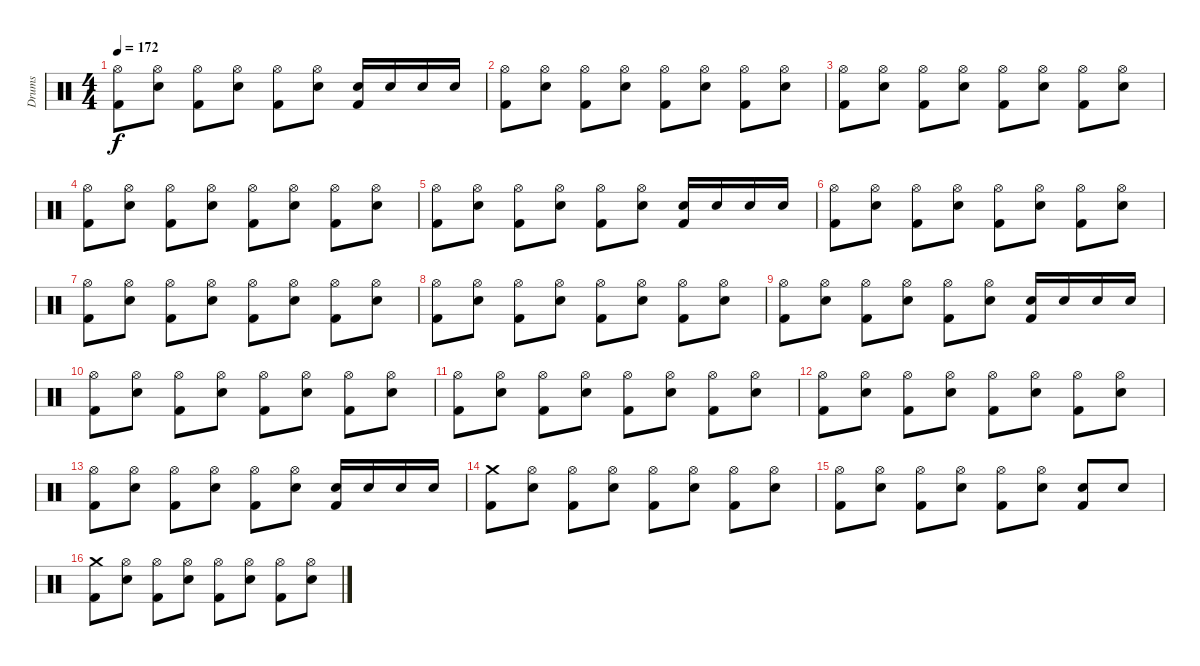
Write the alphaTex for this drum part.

\track ("Drums" "Drums") {instrument percussion}
\staff {score}
\articulation defaults
\ts (4 4)
\tempo 172
\clef neutral
\ks c
("Hi-Hat (open)" "Kick (hit) 2").8{dy f} ("Hi-Hat (open)" "Snare (hit) 2").8 ("Hi-Hat (open)" "Kick (hit) 2").8 ("Hi-Hat (open)" "Snare (hit) 2").8 ("Hi-Hat (open)" "Kick (hit) 2").8 ("Hi-Hat (open)" "Snare (hit) 2").8 ("Snare (hit) 2" "Kick (hit) 2").16 "Snare (hit) 2".16 "Snare (hit) 2".16 "Snare (hit) 2".16 |
("Hi-Hat (open)" "Kick (hit) 2").8 ("Hi-Hat (open)" "Snare (hit) 2").8 ("Hi-Hat (open)" "Kick (hit) 2").8 ("Hi-Hat (open)" "Snare (hit) 2").8 ("Hi-Hat (open)" "Kick (hit) 2").8 ("Hi-Hat (open)" "Snare (hit) 2").8 ("Hi-Hat (open)" "Kick (hit) 2").8 ("Hi-Hat (open)" "Snare (hit) 2").8 |
("Hi-Hat (open)" "Kick (hit) 2").8 ("Hi-Hat (open)" "Snare (hit) 2").8 ("Hi-Hat (open)" "Kick (hit) 2").8 ("Hi-Hat (open)" "Snare (hit) 2").8 ("Hi-Hat (open)" "Kick (hit) 2").8 ("Hi-Hat (open)" "Snare (hit) 2").8 ("Hi-Hat (open)" "Kick (hit) 2").8 ("Hi-Hat (open)" "Snare (hit) 2").8 |
("Hi-Hat (open)" "Kick (hit) 2").8 ("Hi-Hat (open)" "Snare (hit) 2").8 ("Hi-Hat (open)" "Kick (hit) 2").8 ("Hi-Hat (open)" "Snare (hit) 2").8 ("Hi-Hat (open)" "Kick (hit) 2").8 ("Hi-Hat (open)" "Snare (hit) 2").8 ("Hi-Hat (open)" "Kick (hit) 2").8 ("Hi-Hat (open)" "Snare (hit) 2").8 |
("Hi-Hat (open)" "Kick (hit) 2").8 ("Hi-Hat (open)" "Snare (hit) 2").8 ("Hi-Hat (open)" "Kick (hit) 2").8 ("Hi-Hat (open)" "Snare (hit) 2").8 ("Hi-Hat (open)" "Kick (hit) 2").8 ("Hi-Hat (open)" "Snare (hit) 2").8 ("Snare (hit) 2" "Kick (hit) 2").16 "Snare (hit) 2".16 "Snare (hit) 2".16 "Snare (hit) 2".16 |
("Hi-Hat (open)" "Kick (hit) 2").8 ("Hi-Hat (open)" "Snare (hit) 2").8 ("Hi-Hat (open)" "Kick (hit) 2").8 ("Hi-Hat (open)" "Snare (hit) 2").8 ("Hi-Hat (open)" "Kick (hit) 2").8 ("Hi-Hat (open)" "Snare (hit) 2").8 ("Hi-Hat (open)" "Kick (hit) 2").8 ("Hi-Hat (open)" "Snare (hit) 2").8 |
("Hi-Hat (open)" "Kick (hit) 2").8 ("Hi-Hat (open)" "Snare (hit) 2").8 ("Hi-Hat (open)" "Kick (hit) 2").8 ("Hi-Hat (open)" "Snare (hit) 2").8 ("Hi-Hat (open)" "Kick (hit) 2").8 ("Hi-Hat (open)" "Snare (hit) 2").8 ("Hi-Hat (open)" "Kick (hit) 2").8 ("Hi-Hat (open)" "Snare (hit) 2").8 |
("Hi-Hat (open)" "Kick (hit) 2").8 ("Hi-Hat (open)" "Snare (hit) 2").8 ("Hi-Hat (open)" "Kick (hit) 2").8 ("Hi-Hat (open)" "Snare (hit) 2").8 ("Hi-Hat (open)" "Kick (hit) 2").8 ("Hi-Hat (open)" "Snare (hit) 2").8 ("Hi-Hat (open)" "Kick (hit) 2").8 ("Hi-Hat (open)" "Snare (hit) 2").8 |
("Hi-Hat (open)" "Kick (hit) 2").8 ("Hi-Hat (open)" "Snare (hit) 2").8 ("Hi-Hat (open)" "Kick (hit) 2").8 ("Hi-Hat (open)" "Snare (hit) 2").8 ("Hi-Hat (open)" "Kick (hit) 2").8 ("Hi-Hat (open)" "Snare (hit) 2").8 ("Snare (hit) 2" "Kick (hit) 2").16 "Snare (hit) 2".16 "Snare (hit) 2".16 "Snare (hit) 2".16 |
("Hi-Hat (open)" "Kick (hit) 2").8 ("Hi-Hat (open)" "Snare (hit) 2").8 ("Hi-Hat (open)" "Kick (hit) 2").8 ("Hi-Hat (open)" "Snare (hit) 2").8 ("Hi-Hat (open)" "Kick (hit) 2").8 ("Hi-Hat (open)" "Snare (hit) 2").8 ("Hi-Hat (open)" "Kick (hit) 2").8 ("Hi-Hat (open)" "Snare (hit) 2").8 |
("Hi-Hat (open)" "Kick (hit) 2").8 ("Hi-Hat (open)" "Snare (hit) 2").8 ("Hi-Hat (open)" "Kick (hit) 2").8 ("Hi-Hat (open)" "Snare (hit) 2").8 ("Hi-Hat (open)" "Kick (hit) 2").8 ("Hi-Hat (open)" "Snare (hit) 2").8 ("Hi-Hat (open)" "Kick (hit) 2").8 ("Hi-Hat (open)" "Snare (hit) 2").8 |
("Hi-Hat (open)" "Kick (hit) 2").8 ("Hi-Hat (open)" "Snare (hit) 2").8 ("Hi-Hat (open)" "Kick (hit) 2").8 ("Hi-Hat (open)" "Snare (hit) 2").8 ("Hi-Hat (open)" "Kick (hit) 2").8 ("Hi-Hat (open)" "Snare (hit) 2").8 ("Hi-Hat (open)" "Kick (hit) 2").8 ("Hi-Hat (open)" "Snare (hit) 2").8 |
("Hi-Hat (open)" "Kick (hit) 2").8 ("Hi-Hat (open)" "Snare (hit) 2").8 ("Hi-Hat (open)" "Kick (hit) 2").8 ("Hi-Hat (open)" "Snare (hit) 2").8 ("Hi-Hat (open)" "Kick (hit) 2").8 ("Hi-Hat (open)" "Snare (hit) 2").8 ("Snare (hit) 2" "Kick (hit) 2").16 "Snare (hit) 2".16 "Snare (hit) 2".16 "Snare (hit) 2".16 |
("Crash medium (hit)" "Kick (hit) 2").8 ("Hi-Hat (open)" "Snare (hit) 2").8 ("Hi-Hat (open)" "Kick (hit) 2").8 ("Hi-Hat (open)" "Snare (hit) 2").8 ("Hi-Hat (open)" "Kick (hit) 2").8 ("Hi-Hat (open)" "Snare (hit) 2").8 ("Hi-Hat (open)" "Kick (hit) 2").8 ("Hi-Hat (open)" "Snare (hit) 2").8 |
("Hi-Hat (open)" "Kick (hit) 2").8 ("Hi-Hat (open)" "Snare (hit) 2").8 ("Hi-Hat (open)" "Kick (hit) 2").8 ("Hi-Hat (open)" "Snare (hit) 2").8 ("Hi-Hat (open)" "Kick (hit) 2").8 ("Hi-Hat (open)" "Snare (hit) 2").8 ("Snare (hit) 2" "Kick (hit) 2").8 "Snare (hit) 2".8 |
("Crash medium (hit)" "Kick (hit) 2").8 ("Hi-Hat (open)" "Snare (hit) 2").8 ("Hi-Hat (open)" "Kick (hit) 2").8 ("Hi-Hat (open)" "Snare (hit) 2").8 ("Hi-Hat (open)" "Kick (hit) 2").8 ("Hi-Hat (open)" "Snare (hit) 2").8 ("Hi-Hat (open)" "Kick (hit) 2").8 ("Hi-Hat (open)" "Snare (hit) 2").8
